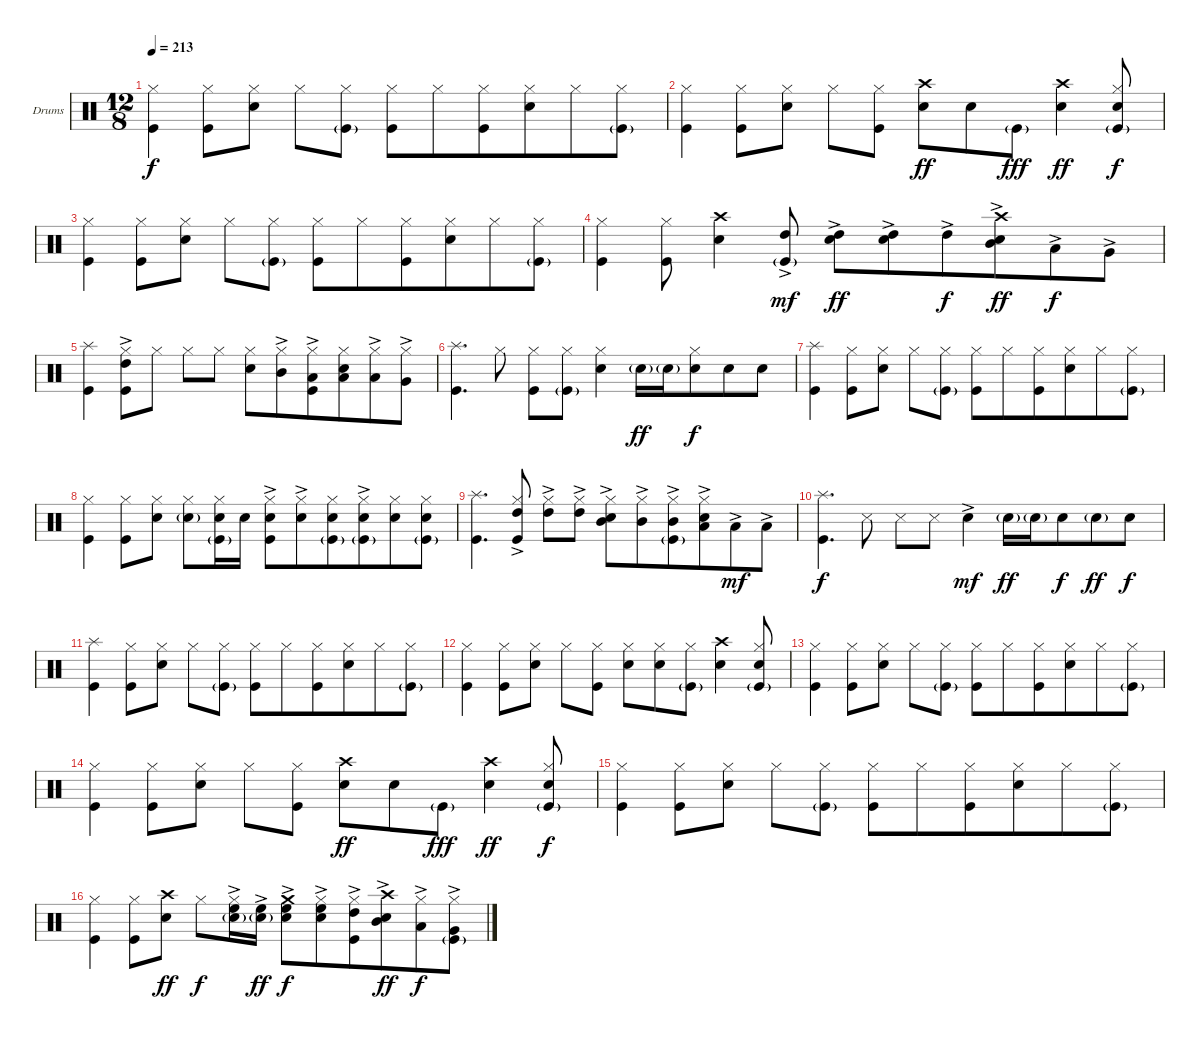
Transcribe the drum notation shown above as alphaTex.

\bracketExtendMode groupsimilarinstruments
\firstSystemTrackNameOrientation horizontal
\otherSystemsTrackNameOrientation horizontal
\track ("Drumkit" "Drums") {instrument percussion}
\staff {score}
\articulation defaults
\ts (12 8)
\beaming (8 2 2 2 6)
\tempo 213
\clef neutral
\ks c
("Kick (hit)" "Hi-Hat (closed)").4{dy f} ("Kick (hit)" "Hi-Hat (closed)").8 ("Snare (hit) 2" "Hi-Hat (closed)").8 "Hi-Hat (closed)".8 ("Hi-Hat (closed)" "Kick (hit)"{g}).8 ("Kick (hit)" "Hi-Hat (closed)").8 "Hi-Hat (closed)".8 ("Hi-Hat (closed)" "Kick (hit)").8 ("Snare (hit) 2" "Hi-Hat (closed)").8 "Hi-Hat (closed)".8 ("Hi-Hat (closed)" "Kick (hit)"{g}).8 |
("Kick (hit)" "Hi-Hat (closed)").4 ("Kick (hit)" "Hi-Hat (closed)").8 ("Snare (hit) 2" "Hi-Hat (closed)").8 "Hi-Hat (closed)".8 ("Hi-Hat (closed)" "Kick (hit)").8 ("Snare (hit) 2" "Crash high (hit)").8{dy ff} "Snare (hit) 2".8 "Kick (hit)"{g}.8{dy fff} ("Snare (hit) 2" "Crash high (hit)").4{dy ff} ("Snare (hit) 2" "Kick (hit)"{g} "Hi-Hat (closed)").8{dy f} |
("Kick (hit)" "Hi-Hat (closed)").4 ("Kick (hit)" "Hi-Hat (closed)").8 ("Snare (hit) 2" "Hi-Hat (closed)").8 "Hi-Hat (closed)".8 ("Hi-Hat (closed)" "Kick (hit)"{g}).8 ("Kick (hit)" "Hi-Hat (closed)").8 "Hi-Hat (closed)".8 ("Hi-Hat (closed)" "Kick (hit)").8 ("Snare (hit) 2" "Hi-Hat (closed)").8 "Hi-Hat (closed)".8 ("Hi-Hat (closed)" "Kick (hit)"{g}).8 |
("Kick (hit)" "Hi-Hat (closed)").4 ("Kick (hit)" "Hi-Hat (closed)").8 ("Snare (hit) 2" "Crash high (hit)").4 ("High Tom (hit)"{ac} "Kick (hit)"{g}).8{dy mf} ("High Tom (hit)"{ac} "Snare (hit) 2").8{dy ff} ("High Tom (hit)"{ac} "Snare (hit) 2").8 "High Tom (hit)"{ac}.8{dy f} ("Mid Tom (hit)"{ac} "Snare (hit) 2" "Crash high (hit)").8{dy ff} "Low Tom (hit)"{ac}.8{dy f} "Very Low Tom (hit)"{ac}.8 |
("Kick (hit)" "Splash (hit)").4 ("Kick (hit)" "Hi-Hat (closed)" "High Tom (hit)"{ac}).8 "Hi-Hat (closed)".8 "Hi-Hat (closed)".8 "Hi-Hat (closed)".8 ("Hi-Hat (closed)" "Snare (hit) 2").8 ("Hi-Hat (closed)" "Mid Tom (hit)"{ac}).8 ("Hi-Hat (closed)" "Kick (hit)" "Low Tom (hit)"{ac}).8 ("Hi-Hat (closed)" "Snare (hit) 2" "Low Tom (hit)").8 ("Hi-Hat (closed)" "Low Tom (hit)"{ac}).8 ("Hi-Hat (closed)" "Very Low Tom (hit)"{ac}).8 |
("Kick (hit)" "Splash (hit)").4{d} "Hi-Hat (closed)".8 ("Hi-Hat (closed)" "Kick (hit)").8 ("Hi-Hat (closed)" "Kick (hit)"{g}).8 ("Snare (hit) 2" "Hi-Hat (closed)").4 "Snare (hit) 2"{g}.16{dy ff} "Snare (hit) 2"{g}.16 ("Snare (hit) 2" "Hi-Hat (closed)").8{dy f} "Snare (hit) 2".8 "Snare (hit) 2".8 |
("Kick (hit)" "Splash (hit)").4 ("Kick (hit)" "Hi-Hat (closed)").8 ("Snare (hit) 2" "Hi-Hat (closed)").8 "Hi-Hat (closed)".8 ("Hi-Hat (closed)" "Kick (hit)"{g}).8 ("Kick (hit)" "Hi-Hat (closed)").8 "Hi-Hat (closed)".8 ("Hi-Hat (closed)" "Kick (hit)").8 ("Snare (hit) 2" "Hi-Hat (closed)").8 "Hi-Hat (closed)".8 ("Hi-Hat (closed)" "Kick (hit)"{g}).8 |
("Kick (hit)" "Hi-Hat (closed)").4 ("Kick (hit)" "Hi-Hat (closed)").8 ("Snare (hit) 2" "Hi-Hat (closed)").8 ("Hi-Hat (closed)" "Snare (hit) 2"{g}).8 ("Hi-Hat (closed)" "Kick (hit)"{g} "Snare (hit) 2").16 "Snare (hit) 2".16 ("Snare (hit) 2"{ac} "Kick (hit)" "Hi-Hat (closed)").8 ("Snare (hit) 2"{ac} "Hi-Hat (closed)").8 ("Snare (hit) 2" "Kick (hit)"{g} "Hi-Hat (closed)").8 ("Snare (hit) 2"{ac} "Kick (hit)"{g} "Hi-Hat (closed)").8 ("Snare (hit) 2" "Hi-Hat (closed)").8 ("Snare (hit) 2" "Kick (hit)"{g} "Hi-Hat (closed)").8 |
("Kick (hit)" "Splash (hit)").4{d} ("Hi-Hat (closed)" "Kick (hit)" "High Tom (hit)"{ac}).8 ("Hi-Hat (closed)" "High Tom (hit)"{ac}).8 ("Hi-Hat (closed)" "High Tom (hit)"{ac}).8 ("Hi-Hat (closed)" "Snare (hit) 2" "Mid Tom (hit)"{ac}).8 ("Hi-Hat (closed)" "Mid Tom (hit)"{ac}).8 ("Hi-Hat (closed)" "Mid Tom (hit)"{ac} "Kick (hit)"{g}).8 ("Low Tom (hit)"{ac} "Snare (hit) 2" "Hi-Hat (closed)").8 "Low Tom (hit)"{ac}.8{dy mf} "Low Tom (hit)"{ac}.8 |
("Kick (hit)" "Splash (hit)").4{d dy f} "Snare (side stick) 3".8 "Snare (side stick) 3".8 "Snare (side stick) 3".8 "Snare (hit) 2"{ac}.4{dy mf} "Snare (hit) 2"{g}.16{dy ff} "Snare (hit) 2"{g}.16 "Snare (hit) 2".8{dy f} "Snare (hit) 2"{g}.8{dy ff} "Snare (hit) 2".8{dy f} |
("Kick (hit)" "Splash (hit)").4 ("Kick (hit)" "Hi-Hat (closed)").8 ("Snare (hit) 2" "Hi-Hat (closed)").8 "Hi-Hat (closed)".8 ("Hi-Hat (closed)" "Kick (hit)"{g}).8 ("Kick (hit)" "Hi-Hat (closed)").8 "Hi-Hat (closed)".8 ("Hi-Hat (closed)" "Kick (hit)").8 ("Snare (hit) 2" "Hi-Hat (closed)").8 "Hi-Hat (closed)".8 ("Hi-Hat (closed)" "Kick (hit)"{g}).8 |
("Kick (hit)" "Hi-Hat (closed)").4 ("Kick (hit)" "Hi-Hat (closed)").8 ("Snare (hit) 2" "Hi-Hat (closed)").8 "Hi-Hat (closed)".8 ("Hi-Hat (closed)" "Kick (hit)").8 ("Snare (hit) 2" "Hi-Hat (closed)").8 ("Snare (hit) 2" "Hi-Hat (closed)").8 ("Kick (hit)"{g} "Hi-Hat (closed)").8 ("Snare (hit) 2" "Crash high (hit)").4 ("Snare (hit) 2" "Kick (hit)"{g} "Hi-Hat (closed)").8 |
("Kick (hit)" "Hi-Hat (closed)").4 ("Kick (hit)" "Hi-Hat (closed)").8 ("Snare (hit) 2" "Hi-Hat (closed)").8 "Hi-Hat (closed)".8 ("Hi-Hat (closed)" "Kick (hit)"{g}).8 ("Kick (hit)" "Hi-Hat (closed)").8 "Hi-Hat (closed)".8 ("Hi-Hat (closed)" "Kick (hit)").8 ("Snare (hit) 2" "Hi-Hat (closed)").8 "Hi-Hat (closed)".8 ("Hi-Hat (closed)" "Kick (hit)"{g}).8 |
("Kick (hit)" "Hi-Hat (closed)").4 ("Kick (hit)" "Hi-Hat (closed)").8 ("Snare (hit) 2" "Hi-Hat (closed)").8 "Hi-Hat (closed)".8 ("Hi-Hat (closed)" "Kick (hit)").8 ("Snare (hit) 2" "Crash high (hit)").8{dy ff} "Snare (hit) 2".8 "Kick (hit)"{g}.8{dy fff} ("Snare (hit) 2" "Crash high (hit)").4{dy ff} ("Snare (hit) 2" "Kick (hit)"{g} "Hi-Hat (closed)").8{dy f} |
("Kick (hit)" "Hi-Hat (closed)").4 ("Kick (hit)" "Hi-Hat (closed)").8 ("Snare (hit) 2" "Hi-Hat (closed)").8 "Hi-Hat (closed)".8 ("Hi-Hat (closed)" "Kick (hit)"{g}).8 ("Kick (hit)" "Hi-Hat (closed)").8 "Hi-Hat (closed)".8 ("Hi-Hat (closed)" "Kick (hit)").8 ("Snare (hit) 2" "Hi-Hat (closed)").8 "Hi-Hat (closed)".8 ("Hi-Hat (closed)" "Kick (hit)"{g}).8 |
("Kick (hit)" "Hi-Hat (closed)").4 ("Kick (hit)" "Hi-Hat (closed)").8 ("Snare (hit) 2" "Crash high (hit)").8{dy ff} "Hi-Hat (closed)".8{dy f} ("Hi-Hat (closed)" "Snare (hit) 2"{g} "High Floor Tom (hit)"{ac}).16 ("Snare (hit) 2"{g} "High Floor Tom (hit)"{ac}).16{dy ff} ("Snare (hit) 2" "Crash medium (hit)" "High Floor Tom (hit)"{ac}).8{dy f} ("Hi-Hat (closed)" "Snare (hit) 2" "High Floor Tom (hit)"{ac}).8 ("Hi-Hat (closed)" "Kick (hit)" "High Tom (hit)"{ac}).8 ("Snare (hit) 2" "Crash high (hit)" "Mid Tom (hit)"{ac}).8{dy ff} ("Hi-Hat (closed)" "Low Tom (hit)"{ac}).8{dy f} ("Hi-Hat (closed)" "Kick (hit)"{g} "Very Low Tom (hit)"{ac}).8
